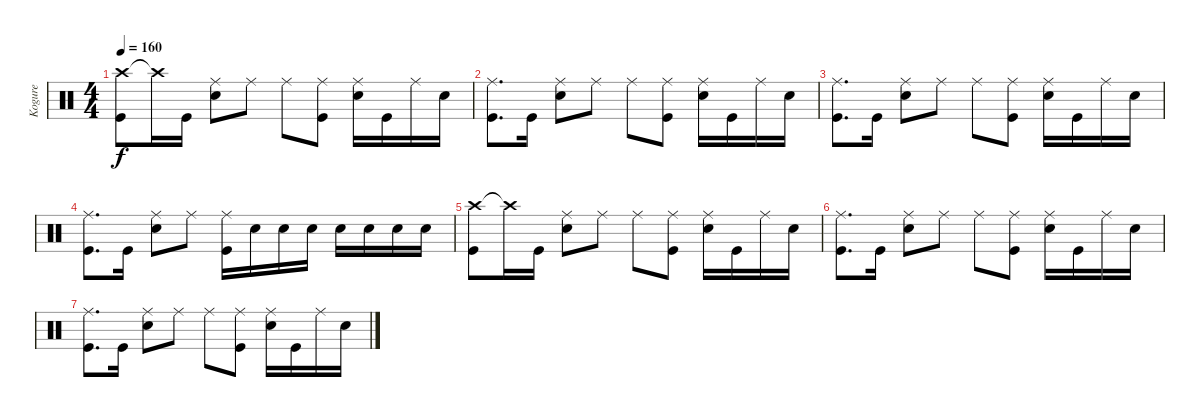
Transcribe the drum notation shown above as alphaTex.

\track ("Kogure" "Kogure") {instrument percussion}
\staff {score}
\articulation defaults
\ts (4 4)
\tempo 160
\clef neutral
\ks c
("Crash high (hit)" "Kick (hit)").8{dy f} "Crash high (hit)"{t}.16 "Kick (hit)".16 ("Ride (middle)" "Snare (hit) 2").8 "Ride (middle)".8 "Ride (middle)".8 ("Ride (middle)" "Kick (hit)").8 ("Ride (middle)" "Snare (hit) 2").16 "Kick (hit)".16 "Ride (middle)".16 "Snare (hit) 2".16 |
("Ride (middle)" "Kick (hit)").8{d} "Kick (hit)".16 ("Ride (middle)" "Snare (hit) 2").8 "Ride (middle)".8 "Ride (middle)".8 ("Ride (middle)" "Kick (hit)").8 ("Ride (middle)" "Snare (hit) 2").16 "Kick (hit)".16 "Ride (middle)".16 "Snare (hit) 2".16 |
("Ride (middle)" "Kick (hit)").8{d} "Kick (hit)".16 ("Ride (middle)" "Snare (hit) 2").8 "Ride (middle)".8 "Ride (middle)".8 ("Ride (middle)" "Kick (hit)").8 ("Ride (middle)" "Snare (hit) 2").16 "Kick (hit)".16 "Ride (middle)".16 "Snare (hit) 2".16 |
("Ride (middle)" "Kick (hit)").8{d} "Kick (hit)".16 ("Ride (middle)" "Snare (hit) 2").8 "Ride (middle)".8 ("Ride (middle)" "Kick (hit)").16 "Snare (hit) 2".16 "Snare (hit) 2".16 "Snare (hit) 2".16 "Snare (hit) 2".16 "Snare (hit) 2".16 "Snare (hit) 2".16 "Snare (hit) 2".16 |
("Crash high (hit)" "Kick (hit)").8 "Crash high (hit)"{t}.16 "Kick (hit)".16 ("Ride (middle)" "Snare (hit) 2").8 "Ride (middle)".8 "Ride (middle)".8 ("Ride (middle)" "Kick (hit)").8 ("Ride (middle)" "Snare (hit) 2").16 "Kick (hit)".16 "Ride (middle)".16 "Snare (hit) 2".16 |
("Ride (middle)" "Kick (hit)").8{d} "Kick (hit)".16 ("Ride (middle)" "Snare (hit) 2").8 "Ride (middle)".8 "Ride (middle)".8 ("Ride (middle)" "Kick (hit)").8 ("Ride (middle)" "Snare (hit) 2").16 "Kick (hit)".16 "Ride (middle)".16 "Snare (hit) 2".16 |
("Ride (middle)" "Kick (hit)").8{d} "Kick (hit)".16 ("Ride (middle)" "Snare (hit) 2").8 "Ride (middle)".8 "Ride (middle)".8 ("Ride (middle)" "Kick (hit)").8 ("Ride (middle)" "Snare (hit) 2").16 "Kick (hit)".16 "Ride (middle)".16 "Snare (hit) 2".16
